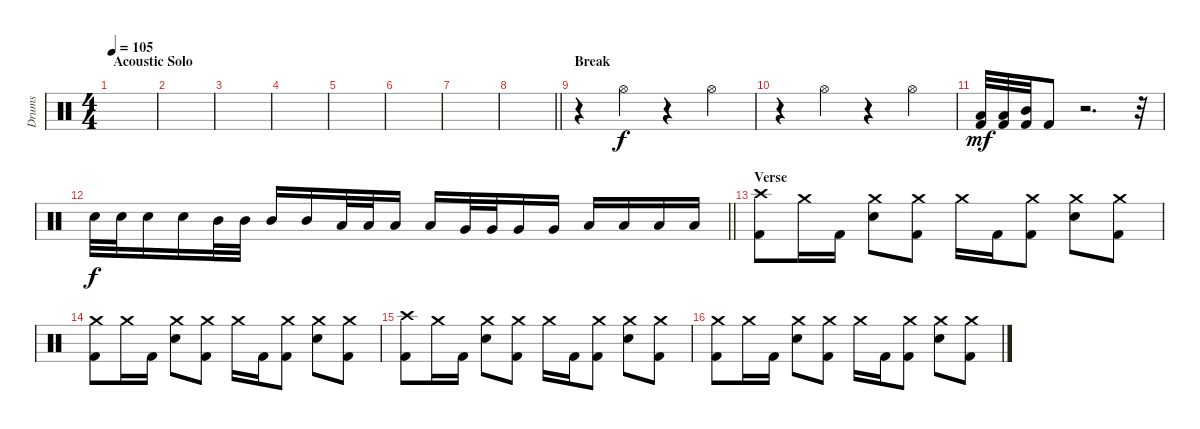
\track ("Drums" "Drums") {instrument percussion}
\staff {score}
\articulation defaults
\ts (4 4)
\section ("" "Acoustic Solo")
\tempo 105
\clef neutral
\ks c
|
|
|
|
|
|
|
\barLineRight lightlight
|
\section ("" "Break")
r.4 "Hi-Hat (open)".4 r.4 "Hi-Hat (open)".4 |
r.4 "Hi-Hat (open)".4 r.4 "Hi-Hat (open)".4 |
("Low Floor Tom (hit)" "Kick (hit) 2").32{dy mf} ("Low Tom (hit)" "Kick (hit) 2").32 ("Mid Tom (hit)" "Kick (hit) 2").32 "Kick (hit) 2".8 r.2{d} r.32 |
\barLineRight lightlight "Electric Snare (hit)".32{dy f} "Electric Snare (hit)".32 "Electric Snare (hit)".16 "Electric Snare (hit)".16 "Mid Tom (hit)".32 "Mid Tom (hit)".32 "Mid Tom (hit)".16 "Mid Tom (hit)".16 "Low Tom (hit)".32 "Low Tom (hit)".32 "Low Tom (hit)".16 "Low Tom (hit)".16 "Very Low Tom (hit)".32 "Very Low Tom (hit)".32 "Very Low Tom (hit)".16 "Very Low Tom (hit)".16 "Low Floor Tom (hit)".16 "Low Floor Tom (hit)".16 "Low Floor Tom (hit)".16 "Low Floor Tom (hit)".16
|
\section ("" "Verse")
("Crash high (hit)" "Kick (hit) 2").8 "Crash medium (hit)".16 "Kick (hit) 2".16 ("Crash medium (hit)" "Electric Snare (hit)").8 ("Crash medium (hit)" "Kick (hit) 2").8 "Crash medium (hit)".16 "Kick (hit) 2".16 ("Crash medium (hit)" "Kick (hit) 2").8 ("Crash medium (hit)" "Electric Snare (hit)").8 ("Crash medium (hit)" "Kick (hit) 2").8 |
("Crash medium (hit)" "Kick (hit) 2").8 "Crash medium (hit)".16 "Kick (hit) 2".16 ("Crash medium (hit)" "Electric Snare (hit)").8 ("Crash medium (hit)" "Kick (hit) 2").8 "Crash medium (hit)".16 "Kick (hit) 2".16 ("Crash medium (hit)" "Kick (hit) 2").8 ("Crash medium (hit)" "Electric Snare (hit)").8 ("Crash medium (hit)" "Kick (hit) 2").8 |
("Crash high (hit)" "Kick (hit) 2").8 "Crash medium (hit)".16 "Kick (hit) 2".16 ("Crash medium (hit)" "Electric Snare (hit)").8 ("Crash medium (hit)" "Kick (hit) 2").8 "Crash medium (hit)".16 "Kick (hit) 2".16 ("Crash medium (hit)" "Kick (hit) 2").8 ("Crash medium (hit)" "Electric Snare (hit)").8 ("Crash medium (hit)" "Kick (hit) 2").8 |
("Crash medium (hit)" "Kick (hit) 2").8 "Crash medium (hit)".16 "Kick (hit) 2".16 ("Crash medium (hit)" "Electric Snare (hit)").8 ("Crash medium (hit)" "Kick (hit) 2").8 "Crash medium (hit)".16 "Kick (hit) 2".16 ("Crash medium (hit)" "Kick (hit) 2").8 ("Crash medium (hit)" "Electric Snare (hit)").8 ("Crash medium (hit)" "Kick (hit) 2").8
